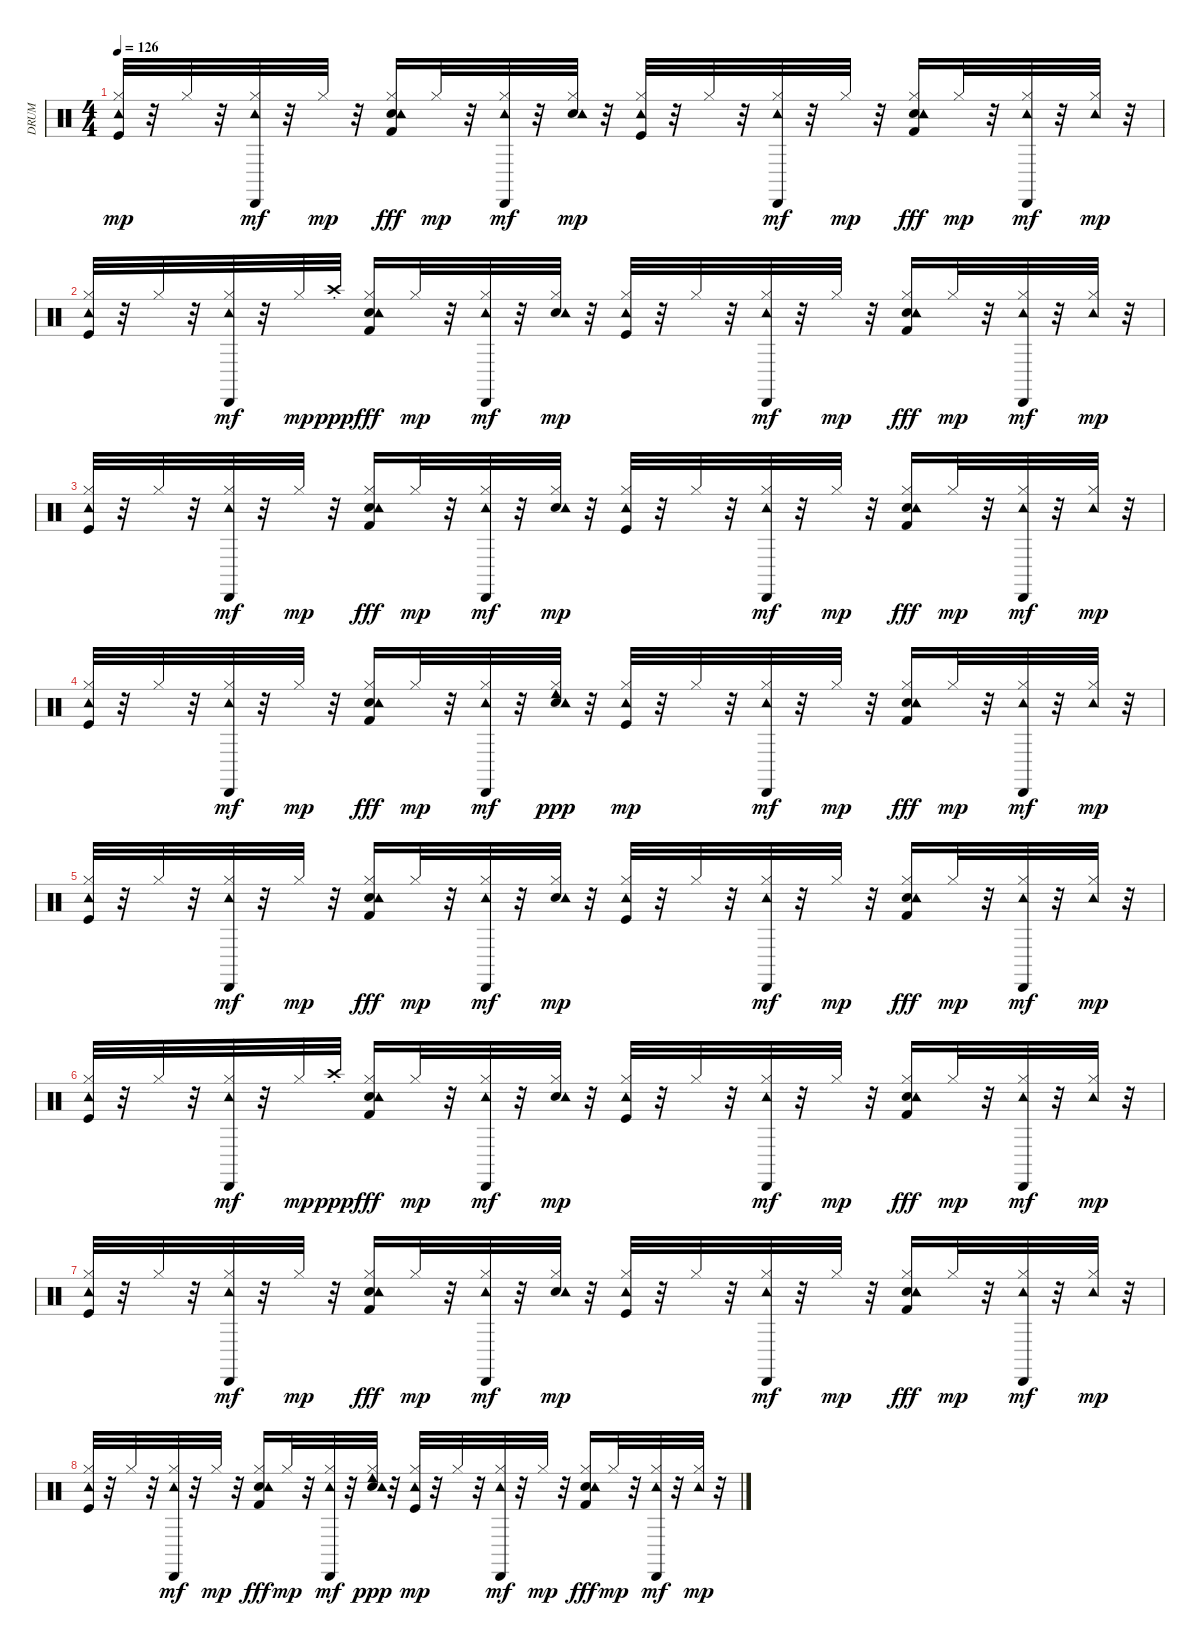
\track ("DRUM" "DRUM") {instrument percussion}
\staff {score}
\articulation defaults
\ts (4 4)
\tempo 126
\clef neutral
\ks c
("Kick (hit)" "Hi-Hat (closed)" "Tambourine (hit)").32{dy mp} r.32 "Hi-Hat (closed)".32 r.32 ("Hi-Hat (closed)" "Tambourine (hit)" "Cabasa (hit)").32{dy mf} r.32 "Hi-Hat (closed)".32{dy mp} r.32 ("Snare (hit) 2" "Hi-Hat (closed)" "Tambourine (hit)" "Kick (hit) 2").16{dy fff} "Hi-Hat (closed)".32{dy mp} r.32 ("Hi-Hat (closed)" "Tambourine (hit)" "Cabasa (hit)").32{dy mf} r.32 ("Snare (hit) 2" "Hi-Hat (closed)" "Tambourine (hit)").32{dy mp} r.32 ("Kick (hit)" "Hi-Hat (closed)" "Tambourine (hit)").32 r.32 "Hi-Hat (closed)".32 r.32 ("Hi-Hat (closed)" "Tambourine (hit)" "Cabasa (hit)").32{dy mf} r.32 "Hi-Hat (closed)".32{dy mp} r.32 ("Snare (hit) 2" "Hi-Hat (closed)" "Tambourine (hit)" "Kick (hit) 2").16{dy fff} "Hi-Hat (closed)".32{dy mp} r.32 ("Hi-Hat (closed)" "Tambourine (hit)" "Cabasa (hit)").32{dy mf} r.32 ("Hi-Hat (closed)" "Tambourine (hit)").32{dy mp} r.32 |
("Kick (hit)" "Hi-Hat (closed)" "Tambourine (hit)").32 r.32 "Hi-Hat (closed)".32 r.32 ("Hi-Hat (closed)" "Tambourine (hit)" "Cabasa (hit)").32{dy mf} r.32 "Hi-Hat (closed)".32{dy mp} "Crash high (choke)".32{dy ppp} ("Snare (hit) 2" "Hi-Hat (closed)" "Tambourine (hit)" "Kick (hit) 2").16{dy fff} "Hi-Hat (closed)".32{dy mp} r.32 ("Hi-Hat (closed)" "Tambourine (hit)" "Cabasa (hit)").32{dy mf} r.32 ("Snare (hit) 2" "Hi-Hat (closed)" "Tambourine (hit)").32{dy mp} r.32 ("Kick (hit)" "Hi-Hat (closed)" "Tambourine (hit)").32 r.32 "Hi-Hat (closed)".32 r.32 ("Hi-Hat (closed)" "Tambourine (hit)" "Cabasa (hit)").32{dy mf} r.32 "Hi-Hat (closed)".32{dy mp} r.32 ("Snare (hit) 2" "Hi-Hat (closed)" "Tambourine (hit)" "Kick (hit) 2").16{dy fff} "Hi-Hat (closed)".32{dy mp} r.32 ("Hi-Hat (closed)" "Tambourine (hit)" "Cabasa (hit)").32{dy mf} r.32 ("Hi-Hat (closed)" "Tambourine (hit)").32{dy mp} r.32 |
("Kick (hit)" "Hi-Hat (closed)" "Tambourine (hit)").32 r.32 "Hi-Hat (closed)".32 r.32 ("Hi-Hat (closed)" "Tambourine (hit)" "Cabasa (hit)").32{dy mf} r.32 "Hi-Hat (closed)".32{dy mp} r.32 ("Snare (hit) 2" "Hi-Hat (closed)" "Tambourine (hit)" "Kick (hit) 2").16{dy fff} "Hi-Hat (closed)".32{dy mp} r.32 ("Hi-Hat (closed)" "Tambourine (hit)" "Cabasa (hit)").32{dy mf} r.32 ("Snare (hit) 2" "Hi-Hat (closed)" "Tambourine (hit)").32{dy mp} r.32 ("Kick (hit)" "Hi-Hat (closed)" "Tambourine (hit)").32 r.32 "Hi-Hat (closed)".32 r.32 ("Hi-Hat (closed)" "Tambourine (hit)" "Cabasa (hit)").32{dy mf} r.32 "Hi-Hat (closed)".32{dy mp} r.32 ("Snare (hit) 2" "Hi-Hat (closed)" "Tambourine (hit)" "Kick (hit) 2").16{dy fff} "Hi-Hat (closed)".32{dy mp} r.32 ("Hi-Hat (closed)" "Tambourine (hit)" "Cabasa (hit)").32{dy mf} r.32 ("Hi-Hat (closed)" "Tambourine (hit)").32{dy mp} r.32 |
("Kick (hit)" "Hi-Hat (closed)" "Tambourine (hit)").32 r.32 "Hi-Hat (closed)".32 r.32 ("Hi-Hat (closed)" "Tambourine (hit)" "Cabasa (hit)").32{dy mf} r.32 "Hi-Hat (closed)".32{dy mp} r.32 ("Snare (hit) 2" "Hi-Hat (closed)" "Tambourine (hit)" "Kick (hit) 2").16{dy fff} "Hi-Hat (closed)".32{dy mp} r.32 ("Hi-Hat (closed)" "Tambourine (hit)" "Cabasa (hit)").32{dy mf} r.32 ("Snare (hit) 2" "Hi-Hat (closed)" "Tambourine (hit)" "Cowbell low (hit)").32{dy ppp} r.32 ("Kick (hit)" "Hi-Hat (closed)" "Tambourine (hit)").32{dy mp} r.32 "Hi-Hat (closed)".32 r.32 ("Hi-Hat (closed)" "Tambourine (hit)" "Cabasa (hit)").32{dy mf} r.32 "Hi-Hat (closed)".32{dy mp} r.32 ("Snare (hit) 2" "Hi-Hat (closed)" "Tambourine (hit)" "Kick (hit) 2").16{dy fff} "Hi-Hat (closed)".32{dy mp} r.32 ("Hi-Hat (closed)" "Tambourine (hit)" "Cabasa (hit)").32{dy mf} r.32 ("Hi-Hat (closed)" "Tambourine (hit)").32{dy mp} r.32 |
("Kick (hit)" "Hi-Hat (closed)" "Tambourine (hit)").32 r.32 "Hi-Hat (closed)".32 r.32 ("Hi-Hat (closed)" "Tambourine (hit)" "Cabasa (hit)").32{dy mf} r.32 "Hi-Hat (closed)".32{dy mp} r.32 ("Snare (hit) 2" "Hi-Hat (closed)" "Tambourine (hit)" "Kick (hit) 2").16{dy fff} "Hi-Hat (closed)".32{dy mp} r.32 ("Hi-Hat (closed)" "Tambourine (hit)" "Cabasa (hit)").32{dy mf} r.32 ("Snare (hit) 2" "Hi-Hat (closed)" "Tambourine (hit)").32{dy mp} r.32 ("Kick (hit)" "Hi-Hat (closed)" "Tambourine (hit)").32 r.32 "Hi-Hat (closed)".32 r.32 ("Hi-Hat (closed)" "Tambourine (hit)" "Cabasa (hit)").32{dy mf} r.32 "Hi-Hat (closed)".32{dy mp} r.32 ("Snare (hit) 2" "Hi-Hat (closed)" "Tambourine (hit)" "Kick (hit) 2").16{dy fff} "Hi-Hat (closed)".32{dy mp} r.32 ("Hi-Hat (closed)" "Tambourine (hit)" "Cabasa (hit)").32{dy mf} r.32 ("Hi-Hat (closed)" "Tambourine (hit)").32{dy mp} r.32 |
("Kick (hit)" "Hi-Hat (closed)" "Tambourine (hit)").32 r.32 "Hi-Hat (closed)".32 r.32 ("Hi-Hat (closed)" "Tambourine (hit)" "Cabasa (hit)").32{dy mf} r.32 "Hi-Hat (closed)".32{dy mp} "Crash high (choke)".32{dy ppp} ("Snare (hit) 2" "Hi-Hat (closed)" "Tambourine (hit)" "Kick (hit) 2").16{dy fff} "Hi-Hat (closed)".32{dy mp} r.32 ("Hi-Hat (closed)" "Tambourine (hit)" "Cabasa (hit)").32{dy mf} r.32 ("Snare (hit) 2" "Hi-Hat (closed)" "Tambourine (hit)").32{dy mp} r.32 ("Kick (hit)" "Hi-Hat (closed)" "Tambourine (hit)").32 r.32 "Hi-Hat (closed)".32 r.32 ("Hi-Hat (closed)" "Tambourine (hit)" "Cabasa (hit)").32{dy mf} r.32 "Hi-Hat (closed)".32{dy mp} r.32 ("Snare (hit) 2" "Hi-Hat (closed)" "Tambourine (hit)" "Kick (hit) 2").16{dy fff} "Hi-Hat (closed)".32{dy mp} r.32 ("Hi-Hat (closed)" "Tambourine (hit)" "Cabasa (hit)").32{dy mf} r.32 ("Hi-Hat (closed)" "Tambourine (hit)").32{dy mp} r.32 |
("Kick (hit)" "Hi-Hat (closed)" "Tambourine (hit)").32 r.32 "Hi-Hat (closed)".32 r.32 ("Hi-Hat (closed)" "Tambourine (hit)" "Cabasa (hit)").32{dy mf} r.32 "Hi-Hat (closed)".32{dy mp} r.32 ("Snare (hit) 2" "Hi-Hat (closed)" "Tambourine (hit)" "Kick (hit) 2").16{dy fff} "Hi-Hat (closed)".32{dy mp} r.32 ("Hi-Hat (closed)" "Tambourine (hit)" "Cabasa (hit)").32{dy mf} r.32 ("Snare (hit) 2" "Hi-Hat (closed)" "Tambourine (hit)").32{dy mp} r.32 ("Kick (hit)" "Hi-Hat (closed)" "Tambourine (hit)").32 r.32 "Hi-Hat (closed)".32 r.32 ("Hi-Hat (closed)" "Tambourine (hit)" "Cabasa (hit)").32{dy mf} r.32 "Hi-Hat (closed)".32{dy mp} r.32 ("Snare (hit) 2" "Hi-Hat (closed)" "Tambourine (hit)" "Kick (hit) 2").16{dy fff} "Hi-Hat (closed)".32{dy mp} r.32 ("Hi-Hat (closed)" "Tambourine (hit)" "Cabasa (hit)").32{dy mf} r.32 ("Hi-Hat (closed)" "Tambourine (hit)").32{dy mp} r.32 |
("Kick (hit)" "Hi-Hat (closed)" "Tambourine (hit)").32 r.32 "Hi-Hat (closed)".32 r.32 ("Hi-Hat (closed)" "Tambourine (hit)" "Cabasa (hit)").32{dy mf} r.32 "Hi-Hat (closed)".32{dy mp} r.32 ("Snare (hit) 2" "Hi-Hat (closed)" "Tambourine (hit)" "Kick (hit) 2").16{dy fff} "Hi-Hat (closed)".32{dy mp} r.32 ("Hi-Hat (closed)" "Tambourine (hit)" "Cabasa (hit)").32{dy mf} r.32 ("Snare (hit) 2" "Hi-Hat (closed)" "Tambourine (hit)" "Cowbell low (hit)").32{dy ppp} r.32 ("Kick (hit)" "Hi-Hat (closed)" "Tambourine (hit)").32{dy mp} r.32 "Hi-Hat (closed)".32 r.32 ("Hi-Hat (closed)" "Tambourine (hit)" "Cabasa (hit)").32{dy mf} r.32 "Hi-Hat (closed)".32{dy mp} r.32 ("Snare (hit) 2" "Hi-Hat (closed)" "Tambourine (hit)" "Kick (hit) 2").16{dy fff} "Hi-Hat (closed)".32{dy mp} r.32 ("Hi-Hat (closed)" "Tambourine (hit)" "Cabasa (hit)").32{dy mf} r.32 ("Hi-Hat (closed)" "Tambourine (hit)").32{dy mp} r.32
